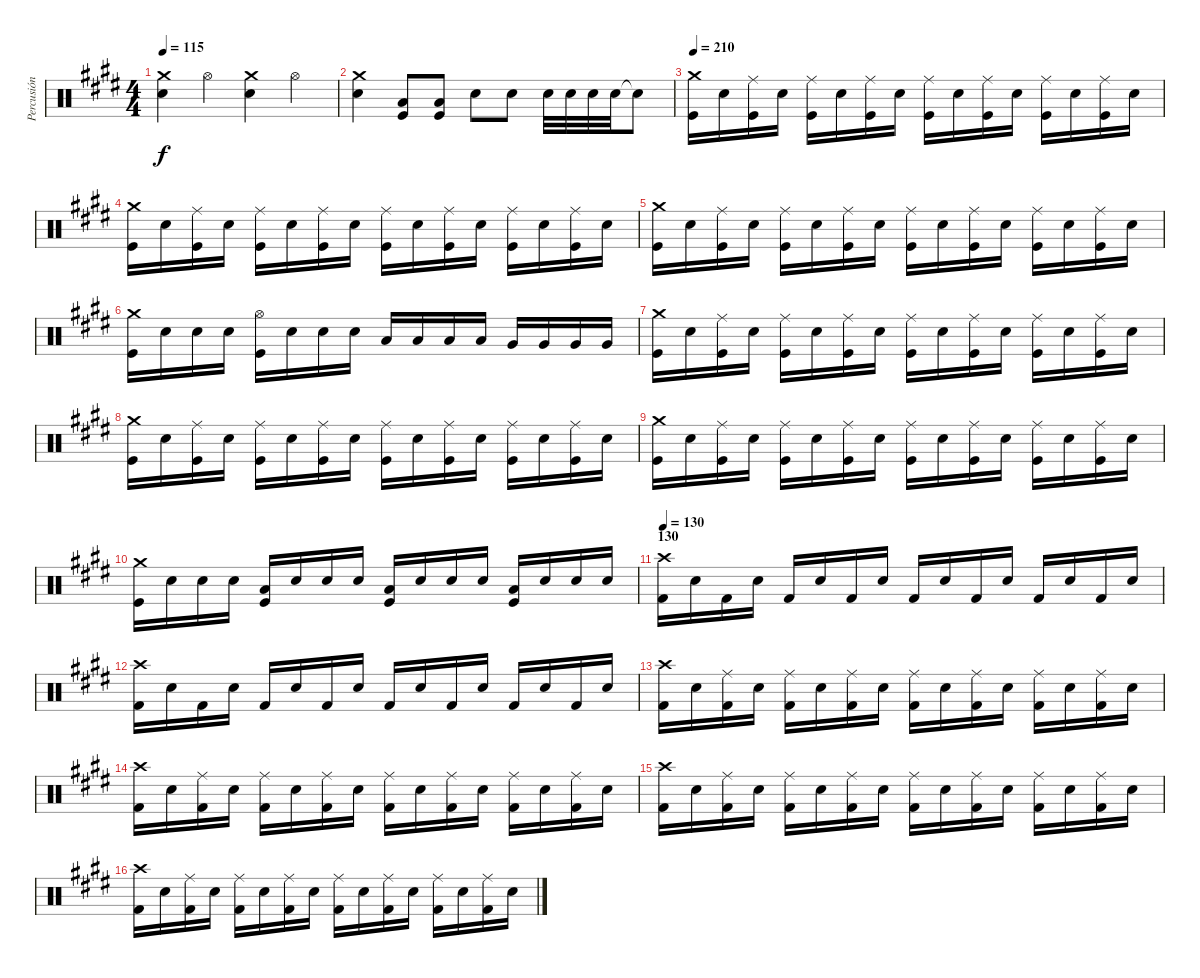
\track ("Percusión" "Percusión") {instrument percussion}
\staff {score}
\articulation defaults
\ts (4 4)
\tempo 115
\clef neutral
\ks e
("Crash medium (hit)" "Snare (hit) 2").4{dy f} "Hi-Hat (open)".4 ("Crash medium (hit)" "Snare (hit) 2").4 "Hi-Hat (open)".4 |
("Crash medium (hit)" "Snare (hit) 2").4 ("Low Tom (hit)" "Kick (hit)").8 ("Low Tom (hit)" "Kick (hit)").8 "Electric Snare (hit)".8 "Electric Snare (hit)".8 "Snare (hit) 2".32 "Snare (hit) 2".32 "Snare (hit) 2".32 "Electric Snare (hit)".32 "Electric Snare (hit)"{t}.8 |
\tempo 210
("Crash medium (hit)" "Kick (hit)").16 "Snare (hit) 2".16 ("Ride (middle)" "Kick (hit)").16 "Snare (hit) 2".16 ("Ride (middle)" "Kick (hit)").16 "Snare (hit) 2".16 ("Ride (middle)" "Kick (hit)").16 "Snare (hit) 2".16 ("Ride (middle)" "Kick (hit)").16 "Snare (hit) 2".16 ("Ride (middle)" "Kick (hit)").16 "Snare (hit) 2".16 ("Ride (middle)" "Kick (hit)").16 "Snare (hit) 2".16 ("Ride (middle)" "Kick (hit)").16 "Snare (hit) 2".16 |
("Crash medium (hit)" "Kick (hit)").16 "Snare (hit) 2".16 ("Ride (middle)" "Kick (hit)").16 "Snare (hit) 2".16 ("Ride (middle)" "Kick (hit)").16 "Snare (hit) 2".16 ("Ride (middle)" "Kick (hit)").16 "Snare (hit) 2".16 ("Ride (middle)" "Kick (hit)").16 "Snare (hit) 2".16 ("Ride (middle)" "Kick (hit)").16 "Snare (hit) 2".16 ("Ride (middle)" "Kick (hit)").16 "Snare (hit) 2".16 ("Ride (middle)" "Kick (hit)").16 "Snare (hit) 2".16 |
("Crash medium (hit)" "Kick (hit)").16 "Snare (hit) 2".16 ("Ride (middle)" "Kick (hit)").16 "Snare (hit) 2".16 ("Ride (middle)" "Kick (hit)").16 "Snare (hit) 2".16 ("Ride (middle)" "Kick (hit)").16 "Snare (hit) 2".16 ("Ride (middle)" "Kick (hit)").16 "Snare (hit) 2".16 ("Ride (middle)" "Kick (hit)").16 "Snare (hit) 2".16 ("Ride (middle)" "Kick (hit)").16 "Snare (hit) 2".16 ("Ride (middle)" "Kick (hit)").16 "Snare (hit) 2".16 |
("Crash medium (hit)" "Kick (hit)").16 "Snare (hit) 2".16 "Snare (hit) 2".16 "Snare (hit) 2".16 ("Hi-Hat (open)" "Kick (hit)").16 "Snare (hit) 2".16 "Snare (hit) 2".16 "Snare (hit) 2".16 "Low Tom (hit)".16 "Low Tom (hit)".16 "Low Tom (hit)".16 "Low Tom (hit)".16 "Very Low Tom (hit)".16 "Very Low Tom (hit)".16 "Very Low Tom (hit)".16 "Very Low Tom (hit)".16 |
("Crash medium (hit)" "Kick (hit)").16 "Snare (hit) 2".16 ("Ride (middle)" "Kick (hit)").16 "Snare (hit) 2".16 ("Ride (middle)" "Kick (hit)").16 "Snare (hit) 2".16 ("Ride (middle)" "Kick (hit)").16 "Snare (hit) 2".16 ("Ride (middle)" "Kick (hit)").16 "Snare (hit) 2".16 ("Ride (middle)" "Kick (hit)").16 "Snare (hit) 2".16 ("Ride (middle)" "Kick (hit)").16 "Snare (hit) 2".16 ("Ride (middle)" "Kick (hit)").16 "Snare (hit) 2".16 |
("Crash medium (hit)" "Kick (hit)").16 "Snare (hit) 2".16 ("Ride (middle)" "Kick (hit)").16 "Snare (hit) 2".16 ("Ride (middle)" "Kick (hit)").16 "Snare (hit) 2".16 ("Ride (middle)" "Kick (hit)").16 "Snare (hit) 2".16 ("Ride (middle)" "Kick (hit)").16 "Snare (hit) 2".16 ("Ride (middle)" "Kick (hit)").16 "Snare (hit) 2".16 ("Ride (middle)" "Kick (hit)").16 "Snare (hit) 2".16 ("Ride (middle)" "Kick (hit)").16 "Snare (hit) 2".16 |
("Crash medium (hit)" "Kick (hit)").16 "Snare (hit) 2".16 ("Ride (middle)" "Kick (hit)").16 "Snare (hit) 2".16 ("Ride (middle)" "Kick (hit)").16 "Snare (hit) 2".16 ("Ride (middle)" "Kick (hit)").16 "Snare (hit) 2".16 ("Ride (middle)" "Kick (hit)").16 "Snare (hit) 2".16 ("Ride (middle)" "Kick (hit)").16 "Snare (hit) 2".16 ("Ride (middle)" "Kick (hit)").16 "Snare (hit) 2".16 ("Ride (middle)" "Kick (hit)").16 "Snare (hit) 2".16 |
("Crash medium (hit)" "Kick (hit)").16 "Snare (hit) 2".16 "Snare (hit) 2".16 "Snare (hit) 2".16 ("Low Tom (hit)" "Kick (hit)").16 "Snare (hit) 2".16 "Snare (hit) 2".16 "Snare (hit) 2".16 ("Low Tom (hit)" "Kick (hit)").16 "Snare (hit) 2".16 "Snare (hit) 2".16 "Snare (hit) 2".16 ("Low Tom (hit)" "Kick (hit)").16 "Snare (hit) 2".16 "Snare (hit) 2".16 "Snare (hit) 2".16 |
\section ("" "130")
\tempo 130
("Crash high (hit)" "Kick (hit) 2").16 "Electric Snare (hit)".16 "Kick (hit) 2".16 "Electric Snare (hit)".16 "Kick (hit) 2".16 "Electric Snare (hit)".16 "Kick (hit) 2".16 "Electric Snare (hit)".16 "Kick (hit) 2".16 "Electric Snare (hit)".16 "Kick (hit) 2".16 "Electric Snare (hit)".16 "Kick (hit) 2".16 "Electric Snare (hit)".16 "Kick (hit) 2".16 "Electric Snare (hit)".16 |
("Crash high (hit)" "Kick (hit) 2").16 "Electric Snare (hit)".16 "Kick (hit) 2".16 "Electric Snare (hit)".16 "Kick (hit) 2".16 "Electric Snare (hit)".16 "Kick (hit) 2".16 "Electric Snare (hit)".16 "Kick (hit) 2".16 "Electric Snare (hit)".16 "Kick (hit) 2".16 "Electric Snare (hit)".16 "Kick (hit) 2".16 "Electric Snare (hit)".16 "Kick (hit) 2".16 "Electric Snare (hit)".16 |
("Crash high (hit)" "Kick (hit) 2").16 "Electric Snare (hit)".16 ("Ride (middle)" "Kick (hit) 2").16 "Electric Snare (hit)".16 ("Ride (middle)" "Kick (hit) 2").16 "Electric Snare (hit)".16 ("Ride (middle)" "Kick (hit) 2").16 "Electric Snare (hit)".16 ("Ride (middle)" "Kick (hit) 2").16 "Electric Snare (hit)".16 ("Ride (middle)" "Kick (hit) 2").16 "Electric Snare (hit)".16 ("Ride (middle)" "Kick (hit) 2").16 "Electric Snare (hit)".16 ("Ride (middle)" "Kick (hit) 2").16 "Electric Snare (hit)".16 |
("Crash high (hit)" "Kick (hit) 2").16 "Electric Snare (hit)".16 ("Ride (middle)" "Kick (hit) 2").16 "Electric Snare (hit)".16 ("Ride (middle)" "Kick (hit) 2").16 "Electric Snare (hit)".16 ("Ride (middle)" "Kick (hit) 2").16 "Electric Snare (hit)".16 ("Ride (middle)" "Kick (hit) 2").16 "Electric Snare (hit)".16 ("Ride (middle)" "Kick (hit) 2").16 "Electric Snare (hit)".16 ("Ride (middle)" "Kick (hit) 2").16 "Electric Snare (hit)".16 ("Ride (middle)" "Kick (hit) 2").16 "Electric Snare (hit)".16 |
("Crash high (hit)" "Kick (hit) 2").16 "Electric Snare (hit)".16 ("Ride (middle)" "Kick (hit) 2").16 "Electric Snare (hit)".16 ("Ride (middle)" "Kick (hit) 2").16 "Electric Snare (hit)".16 ("Ride (middle)" "Kick (hit) 2").16 "Electric Snare (hit)".16 ("Ride (middle)" "Kick (hit) 2").16 "Electric Snare (hit)".16 ("Ride (middle)" "Kick (hit) 2").16 "Electric Snare (hit)".16 ("Ride (middle)" "Kick (hit) 2").16 "Electric Snare (hit)".16 ("Ride (middle)" "Kick (hit) 2").16 "Electric Snare (hit)".16 |
("Crash high (hit)" "Kick (hit) 2").16 "Electric Snare (hit)".16 ("Ride (middle)" "Kick (hit) 2").16 "Electric Snare (hit)".16 ("Ride (middle)" "Kick (hit) 2").16 "Electric Snare (hit)".16 ("Ride (middle)" "Kick (hit) 2").16 "Electric Snare (hit)".16 ("Ride (middle)" "Kick (hit) 2").16 "Electric Snare (hit)".16 ("Ride (middle)" "Kick (hit) 2").16 "Electric Snare (hit)".16 ("Ride (middle)" "Kick (hit) 2").16 "Electric Snare (hit)".16 ("Ride (middle)" "Kick (hit) 2").16 "Electric Snare (hit)".16
